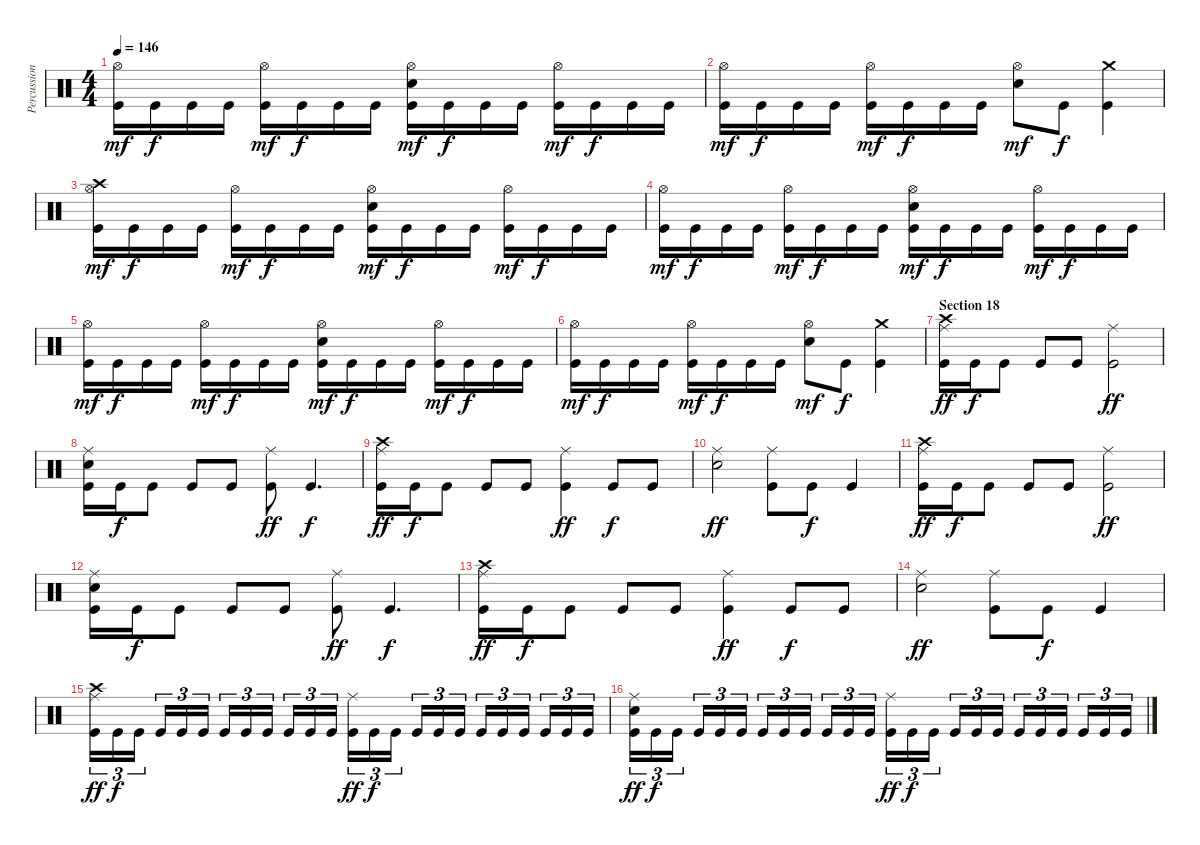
\track ("Percussion" "Percussion") {instrument percussion}
\staff {score}
\articulation defaults
\ts (4 4)
\tempo 146
\clef neutral
\ks c
("Hi-Hat (open)" "Kick (hit)").16{dy mf} "Kick (hit)".16{dy f} "Kick (hit)".16 "Kick (hit)".16 ("Hi-Hat (open)" "Kick (hit)").16{dy mf} "Kick (hit)".16{dy f} "Kick (hit)".16 "Kick (hit)".16 ("Hi-Hat (open)" "Electric Snare (hit)" "Kick (hit)").16{dy mf} "Kick (hit)".16{dy f} "Kick (hit)".16 "Kick (hit)".16 ("Hi-Hat (open)" "Kick (hit)").16{dy mf} "Kick (hit)".16{dy f} "Kick (hit)".16 "Kick (hit)".16 |
("Hi-Hat (open)" "Kick (hit)").16{dy mf} "Kick (hit)".16{dy f} "Kick (hit)".16 "Kick (hit)".16 ("Hi-Hat (open)" "Kick (hit)").16{dy mf} "Kick (hit)".16{dy f} "Kick (hit)".16 "Kick (hit)".16 ("Hi-Hat (open)" "Electric Snare (hit)").8{dy mf} "Kick (hit)".8{dy f} ("Crash medium (hit)" "Kick (hit)").4 |
("Crash high (hit)" "Hi-Hat (open)" "Kick (hit)").16{dy mf} "Kick (hit)".16{dy f} "Kick (hit)".16 "Kick (hit)".16 ("Hi-Hat (open)" "Kick (hit)").16{dy mf} "Kick (hit)".16{dy f} "Kick (hit)".16 "Kick (hit)".16 ("Hi-Hat (open)" "Electric Snare (hit)" "Kick (hit)").16{dy mf} "Kick (hit)".16{dy f} "Kick (hit)".16 "Kick (hit)".16 ("Hi-Hat (open)" "Kick (hit)").16{dy mf} "Kick (hit)".16{dy f} "Kick (hit)".16 "Kick (hit)".16 |
("Hi-Hat (open)" "Kick (hit)").16{dy mf} "Kick (hit)".16{dy f} "Kick (hit)".16 "Kick (hit)".16 ("Hi-Hat (open)" "Kick (hit)").16{dy mf} "Kick (hit)".16{dy f} "Kick (hit)".16 "Kick (hit)".16 ("Hi-Hat (open)" "Electric Snare (hit)" "Kick (hit)").16{dy mf} "Kick (hit)".16{dy f} "Kick (hit)".16 "Kick (hit)".16 ("Hi-Hat (open)" "Kick (hit)").16{dy mf} "Kick (hit)".16{dy f} "Kick (hit)".16 "Kick (hit)".16 |
("Hi-Hat (open)" "Kick (hit)").16{dy mf} "Kick (hit)".16{dy f} "Kick (hit)".16 "Kick (hit)".16 ("Hi-Hat (open)" "Kick (hit)").16{dy mf} "Kick (hit)".16{dy f} "Kick (hit)".16 "Kick (hit)".16 ("Hi-Hat (open)" "Electric Snare (hit)" "Kick (hit)").16{dy mf} "Kick (hit)".16{dy f} "Kick (hit)".16 "Kick (hit)".16 ("Hi-Hat (open)" "Kick (hit)").16{dy mf} "Kick (hit)".16{dy f} "Kick (hit)".16 "Kick (hit)".16 |
("Hi-Hat (open)" "Kick (hit)").16{dy mf} "Kick (hit)".16{dy f} "Kick (hit)".16 "Kick (hit)".16 ("Hi-Hat (open)" "Kick (hit)").16{dy mf} "Kick (hit)".16{dy f} "Kick (hit)".16 "Kick (hit)".16 ("Hi-Hat (open)" "Electric Snare (hit)").8{dy mf} "Kick (hit)".8{dy f} ("Crash medium (hit)" "Kick (hit)").4 |
\section ("" "Section 18")
("Crash high (hit)" "Ride (middle)" "Kick (hit)").16{dy ff} "Kick (hit)".16{dy f} "Kick (hit)".8 "Kick (hit)".8 "Kick (hit)".8 ("Ride (middle)" "Kick (hit)").2{dy ff} |
("Ride (middle)" "Electric Snare (hit)" "Kick (hit)").16 "Kick (hit)".16{dy f} "Kick (hit)".8 "Kick (hit)".8 "Kick (hit)".8 ("Ride (middle)" "Kick (hit)").8{dy ff} "Kick (hit)".4{d dy f} |
("Crash high (hit)" "Ride (middle)" "Kick (hit)").16{dy ff} "Kick (hit)".16{dy f} "Kick (hit)".8 "Kick (hit)".8 "Kick (hit)".8 ("Ride (middle)" "Kick (hit)").4{dy ff} "Kick (hit)".8{dy f} "Kick (hit)".8 |
("Ride (middle)" "Electric Snare (hit)").2{dy ff} ("Ride (middle)" "Kick (hit)").8 "Kick (hit)".8{dy f} "Kick (hit)".4 |
("Crash high (hit)" "Ride (middle)" "Kick (hit)").16{dy ff} "Kick (hit)".16{dy f} "Kick (hit)".8 "Kick (hit)".8 "Kick (hit)".8 ("Ride (middle)" "Kick (hit)").2{dy ff} |
("Ride (middle)" "Electric Snare (hit)" "Kick (hit)").16 "Kick (hit)".16{dy f} "Kick (hit)".8 "Kick (hit)".8 "Kick (hit)".8 ("Ride (middle)" "Kick (hit)").8{dy ff} "Kick (hit)".4{d dy f} |
("Crash high (hit)" "Ride (middle)" "Kick (hit)").16{dy ff} "Kick (hit)".16{dy f} "Kick (hit)".8 "Kick (hit)".8 "Kick (hit)".8 ("Ride (middle)" "Kick (hit)").4{dy ff} "Kick (hit)".8{dy f} "Kick (hit)".8 |
("Ride (middle)" "Electric Snare (hit)").2{dy ff} ("Ride (middle)" "Kick (hit)").8 "Kick (hit)".8{dy f} "Kick (hit)".4 |
("Crash high (hit)" "Ride (middle)" "Kick (hit)").16{tu (3 2) dy ff} "Kick (hit)".16{tu (3 2) dy f} "Kick (hit)".16{tu (3 2) beam splitsecondary} "Kick (hit)".16{tu (3 2)} "Kick (hit)".16{tu (3 2)} "Kick (hit)".16{tu (3 2)} "Kick (hit)".16{tu (3 2)} "Kick (hit)".16{tu (3 2)} "Kick (hit)".16{tu (3 2) beam splitsecondary} "Kick (hit)".16{tu (3 2)} "Kick (hit)".16{tu (3 2)} "Kick (hit)".16{tu (3 2)} ("Ride (middle)" "Kick (hit)").16{tu (3 2) dy ff} "Kick (hit)".16{tu (3 2) dy f} "Kick (hit)".16{tu (3 2) beam splitsecondary} "Kick (hit)".16{tu (3 2)} "Kick (hit)".16{tu (3 2)} "Kick (hit)".16{tu (3 2)} "Kick (hit)".16{tu (3 2)} "Kick (hit)".16{tu (3 2)} "Kick (hit)".16{tu (3 2) beam splitsecondary} "Kick (hit)".16{tu (3 2)} "Kick (hit)".16{tu (3 2)} "Kick (hit)".16{tu (3 2)} |
("Ride (middle)" "Electric Snare (hit)" "Kick (hit)").16{tu (3 2) dy ff} "Kick (hit)".16{tu (3 2) dy f} "Kick (hit)".16{tu (3 2) beam splitsecondary} "Kick (hit)".16{tu (3 2)} "Kick (hit)".16{tu (3 2)} "Kick (hit)".16{tu (3 2)} "Kick (hit)".16{tu (3 2)} "Kick (hit)".16{tu (3 2)} "Kick (hit)".16{tu (3 2) beam splitsecondary} "Kick (hit)".16{tu (3 2)} "Kick (hit)".16{tu (3 2)} "Kick (hit)".16{tu (3 2)} ("Ride (middle)" "Kick (hit)").16{tu (3 2) dy ff} "Kick (hit)".16{tu (3 2) dy f} "Kick (hit)".16{tu (3 2) beam splitsecondary} "Kick (hit)".16{tu (3 2)} "Kick (hit)".16{tu (3 2)} "Kick (hit)".16{tu (3 2)} "Kick (hit)".16{tu (3 2)} "Kick (hit)".16{tu (3 2)} "Kick (hit)".16{tu (3 2) beam splitsecondary} "Kick (hit)".16{tu (3 2)} "Kick (hit)".16{tu (3 2)} "Kick (hit)".16{tu (3 2)}
